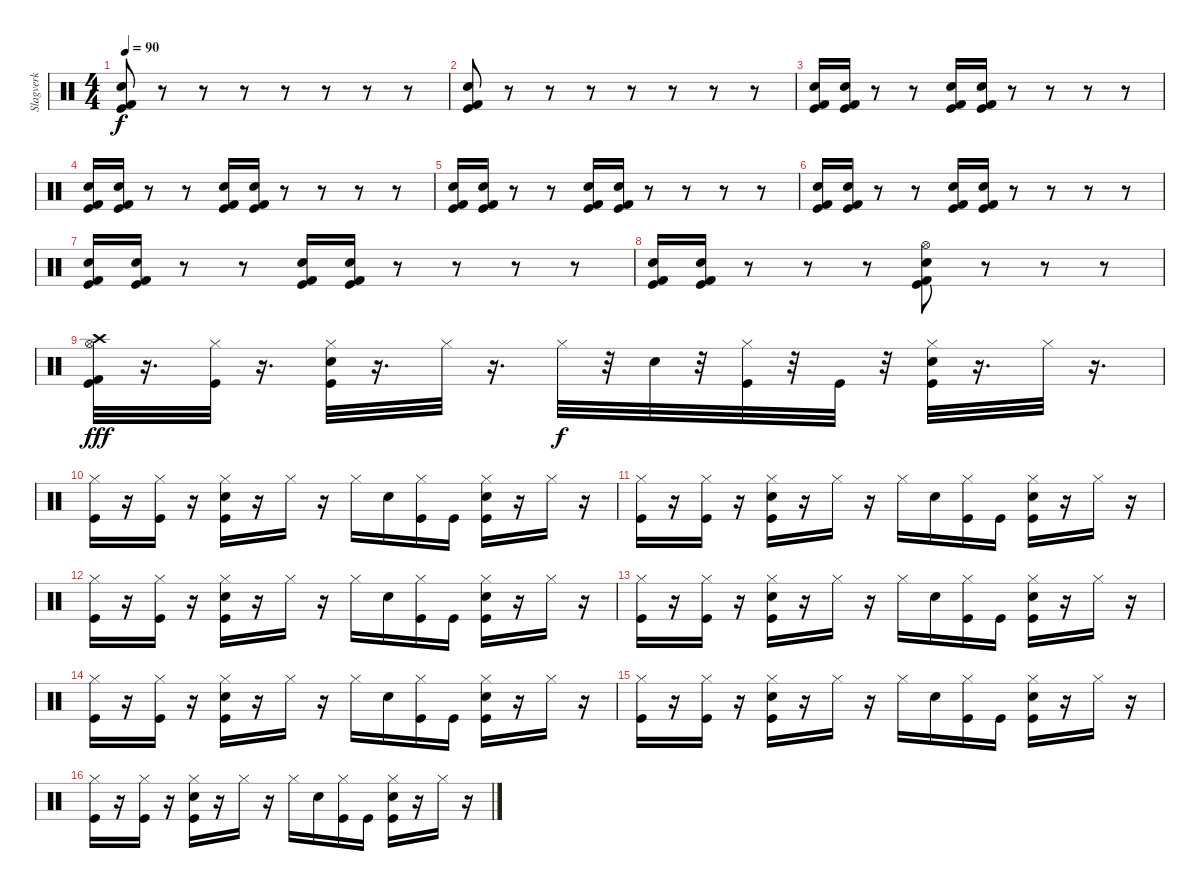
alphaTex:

\track ("Slagverk" "Slagverk") {instrument percussion}
\staff {score}
\articulation defaults
\ts (4 4)
\tempo 90
\clef neutral
\ks c
("Snare (hit) 2" "Kick (hit) 2" "Kick (hit)").8{dy f} r.8 r.8 r.8 r.8 r.8 r.8 r.8 |
("Snare (hit) 2" "Kick (hit)" "Kick (hit) 2").8 r.8 r.8 r.8 r.8 r.8 r.8 r.8 |
("Snare (hit) 2" "Kick (hit)" "Kick (hit) 2").16 ("Snare (hit) 2" "Kick (hit)" "Kick (hit) 2").16 r.8 r.8 ("Snare (hit) 2" "Kick (hit)" "Kick (hit) 2").16 ("Snare (hit) 2" "Kick (hit)" "Kick (hit) 2").16 r.8 r.8 r.8 r.8 |
("Snare (hit) 2" "Kick (hit)" "Kick (hit) 2").16 ("Snare (hit) 2" "Kick (hit)" "Kick (hit) 2").16 r.8 r.8 ("Snare (hit) 2" "Kick (hit)" "Kick (hit) 2").16 ("Snare (hit) 2" "Kick (hit)" "Kick (hit) 2").16 r.8 r.8 r.8 r.8 |
("Snare (hit) 2" "Kick (hit)" "Kick (hit) 2").16 ("Snare (hit) 2" "Kick (hit)" "Kick (hit) 2").16 r.8 r.8 ("Snare (hit) 2" "Kick (hit)" "Kick (hit) 2").16 ("Snare (hit) 2" "Kick (hit)" "Kick (hit) 2").16 r.8 r.8 r.8 r.8 |
("Snare (hit) 2" "Kick (hit)" "Kick (hit) 2").16 ("Snare (hit) 2" "Kick (hit)" "Kick (hit) 2").16 r.8 r.8 ("Snare (hit) 2" "Kick (hit)" "Kick (hit) 2").16 ("Snare (hit) 2" "Kick (hit)" "Kick (hit) 2").16 r.8 r.8 r.8 r.8 |
("Snare (hit) 2" "Kick (hit)" "Kick (hit) 2").16 ("Snare (hit) 2" "Kick (hit)" "Kick (hit) 2").16 r.8 r.8 ("Snare (hit) 2" "Kick (hit)" "Kick (hit) 2").16 ("Snare (hit) 2" "Kick (hit)" "Kick (hit) 2").16 r.8 r.8 r.8 r.8 |
("Snare (hit) 2" "Kick (hit)" "Kick (hit) 2").16 ("Snare (hit) 2" "Kick (hit)" "Kick (hit) 2").16 r.8 r.8 r.8 ("Hi-Hat (open)" "Kick (hit)" "Snare (hit) 2" "Kick (hit) 2").8 r.8 r.8 r.8 |
("Kick (hit)" "Hi-Hat (open)" "Crash high (hit)" "Kick (hit) 2").32{dy fff} r.16{d} ("Kick (hit)" "Hi-Hat (closed)").32 r.16{d} ("Snare (hit) 2" "Kick (hit)" "Hi-Hat (closed)").32 r.16{d} "Hi-Hat (closed)".32 r.16{d} "Hi-Hat (closed)".32{dy f} r.32 "Snare (hit) 2".32 r.32 ("Hi-Hat (closed)" "Kick (hit)").32 r.32 "Kick (hit)".32 r.32 ("Hi-Hat (closed)" "Snare (hit) 2" "Kick (hit)").32 r.16{d} "Hi-Hat (closed)".32 r.16{d} |
("Kick (hit)" "Hi-Hat (closed)").16 r.16 ("Kick (hit)" "Hi-Hat (closed)").16 r.16 ("Kick (hit)" "Hi-Hat (closed)" "Snare (hit) 2").16 r.16 "Hi-Hat (closed)".16 r.16 "Hi-Hat (closed)".16 "Snare (hit) 2".16 ("Kick (hit)" "Hi-Hat (closed)").16 "Kick (hit)".16 ("Kick (hit)" "Hi-Hat (closed)" "Snare (hit) 2").16 r.16 "Hi-Hat (closed)".16 r.16 |
("Kick (hit)" "Hi-Hat (closed)").16 r.16 ("Kick (hit)" "Hi-Hat (closed)").16 r.16 ("Kick (hit)" "Hi-Hat (closed)" "Snare (hit) 2").16 r.16 "Hi-Hat (closed)".16 r.16 "Hi-Hat (closed)".16 "Snare (hit) 2".16 ("Kick (hit)" "Hi-Hat (closed)").16 "Kick (hit)".16 ("Kick (hit)" "Hi-Hat (closed)" "Snare (hit) 2").16 r.16 "Hi-Hat (closed)".16 r.16 |
("Kick (hit)" "Hi-Hat (closed)").16 r.16 ("Kick (hit)" "Hi-Hat (closed)").16 r.16 ("Kick (hit)" "Hi-Hat (closed)" "Snare (hit) 2").16 r.16 "Hi-Hat (closed)".16 r.16 "Hi-Hat (closed)".16 "Snare (hit) 2".16 ("Kick (hit)" "Hi-Hat (closed)").16 "Kick (hit)".16 ("Kick (hit)" "Hi-Hat (closed)" "Snare (hit) 2").16 r.16 "Hi-Hat (closed)".16 r.16 |
("Kick (hit)" "Hi-Hat (closed)").16 r.16 ("Kick (hit)" "Hi-Hat (closed)").16 r.16 ("Kick (hit)" "Hi-Hat (closed)" "Snare (hit) 2").16 r.16 "Hi-Hat (closed)".16 r.16 "Hi-Hat (closed)".16 "Snare (hit) 2".16 ("Kick (hit)" "Hi-Hat (closed)").16 "Kick (hit)".16 ("Kick (hit)" "Hi-Hat (closed)" "Snare (hit) 2").16 r.16 "Hi-Hat (closed)".16 r.16 |
("Kick (hit)" "Hi-Hat (closed)").16 r.16 ("Kick (hit)" "Hi-Hat (closed)").16 r.16 ("Kick (hit)" "Hi-Hat (closed)" "Snare (hit) 2").16 r.16 "Hi-Hat (closed)".16 r.16 "Hi-Hat (closed)".16 "Snare (hit) 2".16 ("Kick (hit)" "Hi-Hat (closed)").16 "Kick (hit)".16 ("Kick (hit)" "Hi-Hat (closed)" "Snare (hit) 2").16 r.16 "Hi-Hat (closed)".16 r.16 |
("Kick (hit)" "Hi-Hat (closed)").16 r.16 ("Kick (hit)" "Hi-Hat (closed)").16 r.16 ("Kick (hit)" "Hi-Hat (closed)" "Snare (hit) 2").16 r.16 "Hi-Hat (closed)".16 r.16 "Hi-Hat (closed)".16 "Snare (hit) 2".16 ("Kick (hit)" "Hi-Hat (closed)").16 "Kick (hit)".16 ("Kick (hit)" "Hi-Hat (closed)" "Snare (hit) 2").16 r.16 "Hi-Hat (closed)".16 r.16 |
("Kick (hit)" "Hi-Hat (closed)").16 r.16 ("Kick (hit)" "Hi-Hat (closed)").16 r.16 ("Kick (hit)" "Hi-Hat (closed)" "Snare (hit) 2").16 r.16 "Hi-Hat (closed)".16 r.16 "Hi-Hat (closed)".16 "Snare (hit) 2".16 ("Kick (hit)" "Hi-Hat (closed)").16 "Kick (hit)".16 ("Kick (hit)" "Hi-Hat (closed)" "Snare (hit) 2").16 r.16 "Hi-Hat (closed)".16 r.16
